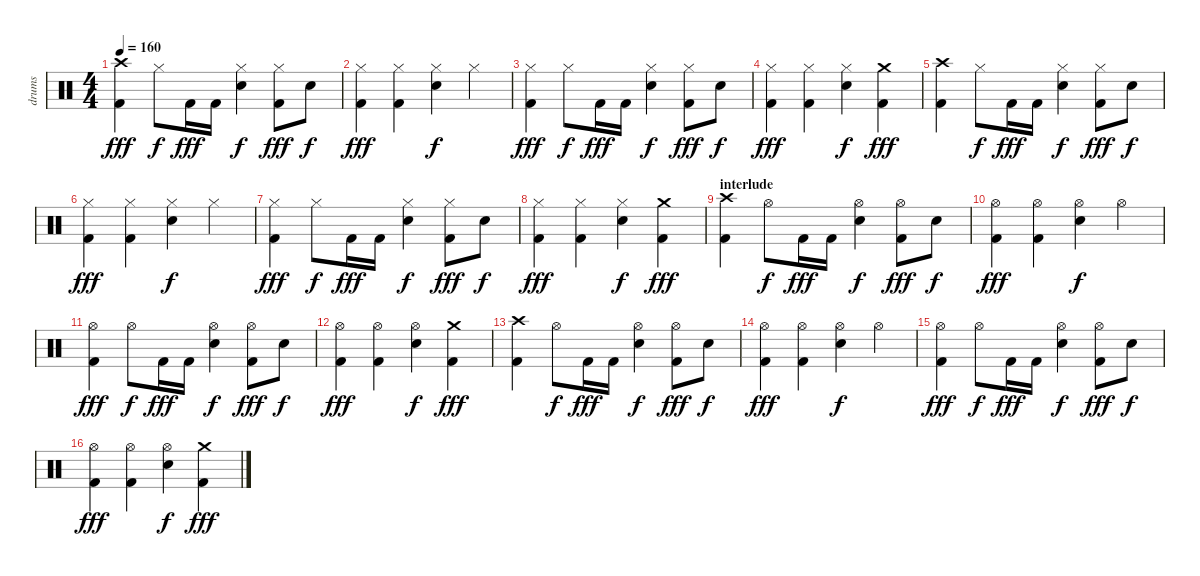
\track ("drums" "drums") {instrument percussion}
\staff {score}
\articulation defaults
\ts (4 4)
\tempo 160
\clef neutral
\ks c
("Crash high (hit)" "Kick (hit) 2").4{dy fff} "Hi-Hat (closed)".8{dy f} "Kick (hit) 2".16{dy fff} "Kick (hit) 2".16 ("Hi-Hat (closed)" "Snare (hit) 2").4{dy f} ("Hi-Hat (closed)" "Kick (hit) 2").8{dy fff} "Snare (hit) 2".8{dy f} |
("Hi-Hat (closed)" "Kick (hit) 2").4{dy fff} ("Hi-Hat (closed)" "Kick (hit) 2").4 ("Hi-Hat (closed)" "Snare (hit) 2").4{dy f} "Hi-Hat (closed)".4 |
("Hi-Hat (closed)" "Kick (hit) 2").4{dy fff} "Hi-Hat (closed)".8{dy f} "Kick (hit) 2".16{dy fff} "Kick (hit) 2".16 ("Hi-Hat (closed)" "Snare (hit) 2").4{dy f} ("Hi-Hat (closed)" "Kick (hit) 2").8{dy fff} "Snare (hit) 2".8{dy f} |
("Hi-Hat (closed)" "Kick (hit) 2").4{dy fff} ("Hi-Hat (closed)" "Kick (hit) 2").4 ("Hi-Hat (closed)" "Snare (hit) 2").4{dy f} ("Crash medium (hit)" "Kick (hit) 2").4{dy fff} |
("Crash high (hit)" "Kick (hit) 2").4 "Hi-Hat (closed)".8{dy f} "Kick (hit) 2".16{dy fff} "Kick (hit) 2".16 ("Hi-Hat (closed)" "Snare (hit) 2").4{dy f} ("Hi-Hat (closed)" "Kick (hit) 2").8{dy fff} "Snare (hit) 2".8{dy f} |
("Hi-Hat (closed)" "Kick (hit) 2").4{dy fff} ("Hi-Hat (closed)" "Kick (hit) 2").4 ("Hi-Hat (closed)" "Snare (hit) 2").4{dy f} "Hi-Hat (closed)".4 |
("Hi-Hat (closed)" "Kick (hit) 2").4{dy fff} "Hi-Hat (closed)".8{dy f} "Kick (hit) 2".16{dy fff} "Kick (hit) 2".16 ("Hi-Hat (closed)" "Snare (hit) 2").4{dy f} ("Hi-Hat (closed)" "Kick (hit) 2").8{dy fff} "Snare (hit) 2".8{dy f} |
("Hi-Hat (closed)" "Kick (hit) 2").4{dy fff} ("Hi-Hat (closed)" "Kick (hit) 2").4 ("Hi-Hat (closed)" "Snare (hit) 2").4{dy f} ("Crash medium (hit)" "Kick (hit) 2").4{dy fff} |
\section ("" "interlude")
("Crash high (hit)" "Kick (hit) 2").4 "Hi-Hat (open)".8{dy f} "Kick (hit) 2".16{dy fff} "Kick (hit) 2".16 ("Hi-Hat (open)" "Snare (hit) 2").4{dy f} ("Hi-Hat (open)" "Kick (hit) 2").8{dy fff} "Snare (hit) 2".8{dy f} |
("Hi-Hat (open)" "Kick (hit) 2").4{dy fff} ("Hi-Hat (open)" "Kick (hit) 2").4 ("Hi-Hat (open)" "Snare (hit) 2").4{dy f} "Hi-Hat (open)".4 |
("Hi-Hat (open)" "Kick (hit) 2").4{dy fff} "Hi-Hat (open)".8{dy f} "Kick (hit) 2".16{dy fff} "Kick (hit) 2".16 ("Hi-Hat (open)" "Snare (hit) 2").4{dy f} ("Hi-Hat (open)" "Kick (hit) 2").8{dy fff} "Snare (hit) 2".8{dy f} |
("Hi-Hat (open)" "Kick (hit) 2").4{dy fff} ("Hi-Hat (open)" "Kick (hit) 2").4 ("Hi-Hat (open)" "Snare (hit) 2").4{dy f} ("Crash medium (hit)" "Kick (hit) 2").4{dy fff} |
("Crash high (hit)" "Kick (hit) 2").4 "Hi-Hat (open)".8{dy f} "Kick (hit) 2".16{dy fff} "Kick (hit) 2".16 ("Hi-Hat (open)" "Snare (hit) 2").4{dy f} ("Hi-Hat (open)" "Kick (hit) 2").8{dy fff} "Snare (hit) 2".8{dy f} |
("Hi-Hat (open)" "Kick (hit) 2").4{dy fff} ("Hi-Hat (open)" "Kick (hit) 2").4 ("Hi-Hat (open)" "Snare (hit) 2").4{dy f} "Hi-Hat (open)".4 |
("Hi-Hat (open)" "Kick (hit) 2").4{dy fff} "Hi-Hat (open)".8{dy f} "Kick (hit) 2".16{dy fff} "Kick (hit) 2".16 ("Hi-Hat (open)" "Snare (hit) 2").4{dy f} ("Hi-Hat (open)" "Kick (hit) 2").8{dy fff} "Snare (hit) 2".8{dy f} |
("Hi-Hat (open)" "Kick (hit) 2").4{dy fff} ("Hi-Hat (open)" "Kick (hit) 2").4 ("Hi-Hat (open)" "Snare (hit) 2").4{dy f} ("Crash medium (hit)" "Kick (hit) 2").4{dy fff}
